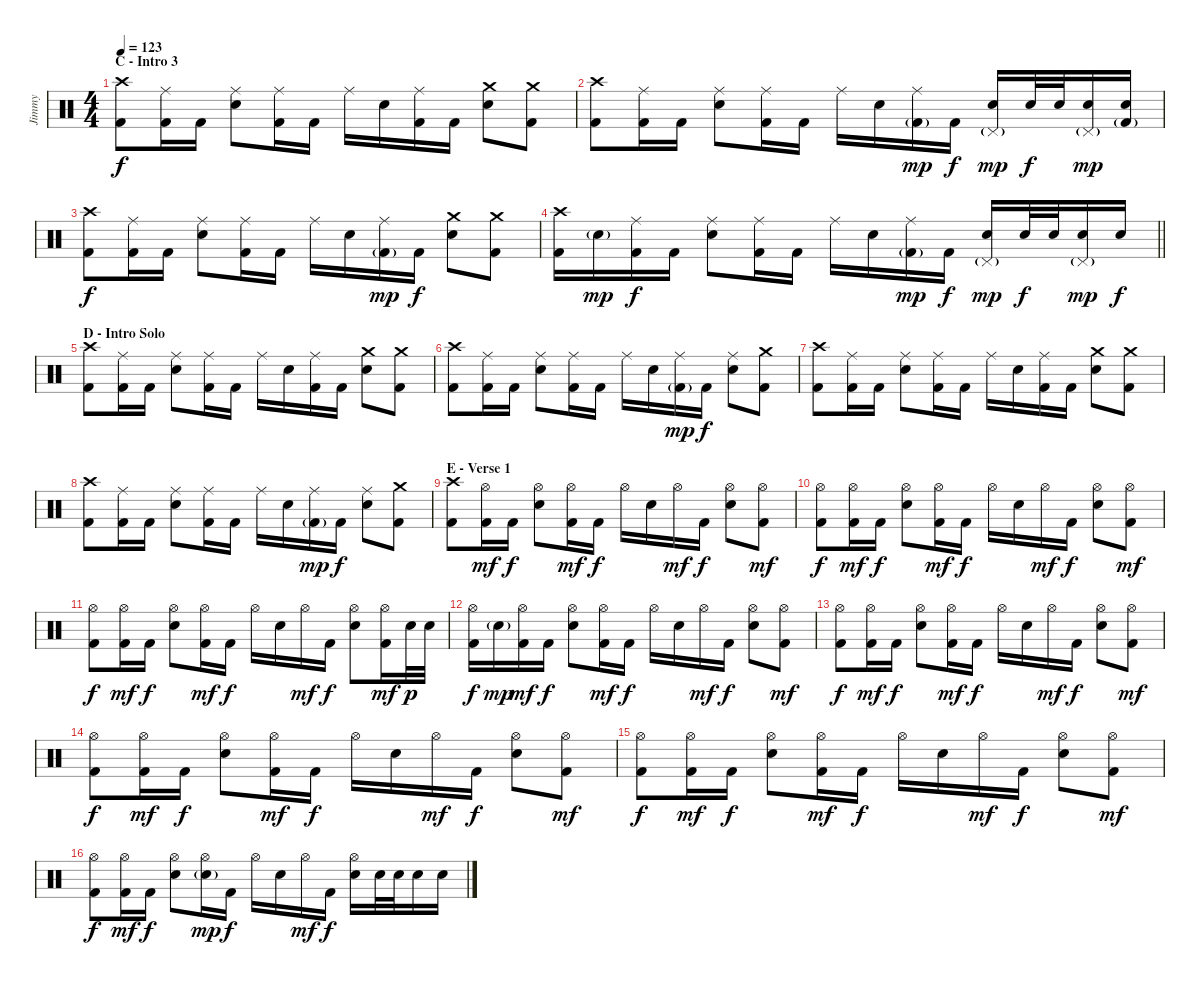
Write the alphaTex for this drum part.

\track ("Jimmy" "Jimmy") {instrument percussion}
\staff {score}
\articulation defaults
\ts (4 4)
\section ("" "C - Intro 3")
\tempo 123
\clef neutral
\ks c
("Crash high (hit)" "Kick (hit) 2").8{dy f} ("Ride (middle)" "Kick (hit) 2").16 "Kick (hit) 2".16 ("Ride (middle)" "Electric Snare (hit)").8 ("Ride (middle)" "Kick (hit) 2").16 "Kick (hit) 2".16 "Ride (middle)".16 "Electric Snare (hit)".16 ("Ride (middle)" "Kick (hit) 2").16 "Kick (hit) 2".16 ("Crash medium (hit)" "Electric Snare (hit)").8 ("Crash medium (hit)" "Kick (hit) 2").8 |
("Crash high (hit)" "Kick (hit) 2").8 ("Ride (middle)" "Kick (hit) 2").16 "Kick (hit) 2".16 ("Ride (middle)" "Electric Snare (hit)").8 ("Ride (middle)" "Kick (hit) 2").16 "Kick (hit) 2".16 "Ride (middle)".16 "Electric Snare (hit)".16 ("Ride (middle)" "Kick (hit) 2"{g}).16{dy mp} "Kick (hit) 2".16{dy f} ("Pedal Hi-Hat (hit)"{g} "Electric Snare (hit)").16{dy mp} "Electric Snare (hit)".32{dy f} "Electric Snare (hit)".32 ("Pedal Hi-Hat (hit)"{g} "Electric Snare (hit)").16{dy mp} ("Electric Snare (hit)" "Kick (hit) 2"{g}).16 |
("Crash high (hit)" "Kick (hit) 2").8{dy f} ("Ride (middle)" "Kick (hit) 2").16 "Kick (hit) 2".16 ("Ride (middle)" "Electric Snare (hit)").8 ("Ride (middle)" "Kick (hit) 2").16 "Kick (hit) 2".16 "Ride (middle)".16 "Electric Snare (hit)".16 ("Ride (middle)" "Kick (hit) 2"{g}).16{dy mp} "Kick (hit) 2".16{dy f} ("Crash medium (hit)" "Electric Snare (hit)").8 ("Crash medium (hit)" "Kick (hit) 2").8 |
\barLineRight lightlight
("Crash high (hit)" "Kick (hit) 2").16 "Electric Snare (hit)"{g}.16{dy mp} ("Ride (middle)" "Kick (hit) 2").16{dy f} "Kick (hit) 2".16 ("Ride (middle)" "Electric Snare (hit)").8 ("Ride (middle)" "Kick (hit) 2").16 "Kick (hit) 2".16 "Ride (middle)".16 "Electric Snare (hit)".16 ("Ride (middle)" "Kick (hit) 2"{g}).16{dy mp} "Kick (hit) 2".16{dy f} ("Pedal Hi-Hat (hit)"{g} "Electric Snare (hit)").16{dy mp} "Electric Snare (hit)".32{dy f} "Electric Snare (hit)".32 ("Pedal Hi-Hat (hit)"{g} "Electric Snare (hit)").16{dy mp} "Electric Snare (hit)".16{dy f} |
\section ("" "D - Intro Solo")
("Crash high (hit)" "Kick (hit) 2").8 ("Ride (middle)" "Kick (hit) 2").16 "Kick (hit) 2".16 ("Ride (middle)" "Electric Snare (hit)").8 ("Ride (middle)" "Kick (hit) 2").16 "Kick (hit) 2".16 "Ride (middle)".16 "Electric Snare (hit)".16 ("Ride (middle)" "Kick (hit) 2").16 "Kick (hit) 2".16 ("Crash medium (hit)" "Electric Snare (hit)").8 ("Crash medium (hit)" "Kick (hit) 2").8 |
("Crash high (hit)" "Kick (hit) 2").8 ("Ride (middle)" "Kick (hit) 2").16 "Kick (hit) 2".16 ("Ride (middle)" "Electric Snare (hit)").8 ("Ride (middle)" "Kick (hit) 2").16 "Kick (hit) 2".16 "Ride (middle)".16 "Electric Snare (hit)".16 ("Ride (middle)" "Kick (hit) 2"{g}).16{dy mp} "Kick (hit) 2".16{dy f} ("Ride (middle)" "Electric Snare (hit)").8 ("Crash medium (hit)" "Kick (hit) 2").8 |
("Crash high (hit)" "Kick (hit) 2").8 ("Ride (middle)" "Kick (hit) 2").16 "Kick (hit) 2".16 ("Ride (middle)" "Electric Snare (hit)").8 ("Ride (middle)" "Kick (hit) 2").16 "Kick (hit) 2".16 "Ride (middle)".16 "Electric Snare (hit)".16 ("Ride (middle)" "Kick (hit) 2").16 "Kick (hit) 2".16 ("Crash medium (hit)" "Electric Snare (hit)").8 ("Crash medium (hit)" "Kick (hit) 2").8 |
("Crash high (hit)" "Kick (hit) 2").8 ("Ride (middle)" "Kick (hit) 2").16 "Kick (hit) 2".16 ("Ride (middle)" "Electric Snare (hit)").8 ("Ride (middle)" "Kick (hit) 2").16 "Kick (hit) 2".16 "Ride (middle)".16 "Electric Snare (hit)".16 ("Ride (middle)" "Kick (hit) 2"{g}).16{dy mp} "Kick (hit) 2".16{dy f} ("Ride (middle)" "Electric Snare (hit)").8 ("Crash medium (hit)" "Kick (hit) 2").8 |
\section ("" "E - Verse 1")
("Crash high (hit)" "Kick (hit) 2").8 ("Hi-Hat (open)" "Kick (hit) 2").16{dy mf} "Kick (hit) 2".16{dy f} ("Hi-Hat (open)" "Electric Snare (hit)").8 ("Hi-Hat (open)" "Kick (hit) 2").16{dy mf} "Kick (hit) 2".16{dy f} "Hi-Hat (open)".16 "Electric Snare (hit)".16 "Hi-Hat (open)".16{dy mf} "Kick (hit) 2".16{dy f} ("Hi-Hat (open)" "Electric Snare (hit)").8 ("Hi-Hat (open)" "Kick (hit) 2").8{dy mf} |
("Hi-Hat (open)" "Kick (hit) 2").8{dy f} ("Hi-Hat (open)" "Kick (hit) 2").16{dy mf} "Kick (hit) 2".16{dy f} ("Hi-Hat (open)" "Electric Snare (hit)").8 ("Hi-Hat (open)" "Kick (hit) 2").16{dy mf} "Kick (hit) 2".16{dy f} "Hi-Hat (open)".16 "Electric Snare (hit)".16 "Hi-Hat (open)".16{dy mf} "Kick (hit) 2".16{dy f} ("Hi-Hat (open)" "Electric Snare (hit)").8 ("Hi-Hat (open)" "Kick (hit) 2").8{dy mf} |
("Hi-Hat (open)" "Kick (hit) 2").8{dy f} ("Hi-Hat (open)" "Kick (hit) 2").16{dy mf} "Kick (hit) 2".16{dy f} ("Hi-Hat (open)" "Electric Snare (hit)").8 ("Hi-Hat (open)" "Kick (hit) 2").16{dy mf} "Kick (hit) 2".16{dy f} "Hi-Hat (open)".16 "Electric Snare (hit)".16 "Hi-Hat (open)".16{dy mf} "Kick (hit) 2".16{dy f} ("Hi-Hat (open)" "Electric Snare (hit)").8 ("Hi-Hat (open)" "Kick (hit) 2").16{dy mf} "Electric Snare (hit)".32{dy p} "Electric Snare (hit)".32 |
("Hi-Hat (open)" "Kick (hit) 2").16{dy f} "Electric Snare (hit)"{g}.16{dy mp} ("Hi-Hat (open)" "Kick (hit) 2").16{dy mf} "Kick (hit) 2".16{dy f} ("Hi-Hat (open)" "Electric Snare (hit)").8 ("Hi-Hat (open)" "Kick (hit) 2").16{dy mf} "Kick (hit) 2".16{dy f} "Hi-Hat (open)".16 "Electric Snare (hit)".16 "Hi-Hat (open)".16{dy mf} "Kick (hit) 2".16{dy f} ("Hi-Hat (open)" "Electric Snare (hit)").8 ("Hi-Hat (open)" "Kick (hit) 2").8{dy mf} |
("Hi-Hat (open)" "Kick (hit) 2").8{dy f} ("Hi-Hat (open)" "Kick (hit) 2").16{dy mf} "Kick (hit) 2".16{dy f} ("Hi-Hat (open)" "Electric Snare (hit)").8 ("Hi-Hat (open)" "Kick (hit) 2").16{dy mf} "Kick (hit) 2".16{dy f} "Hi-Hat (open)".16 "Electric Snare (hit)".16 "Hi-Hat (open)".16{dy mf} "Kick (hit) 2".16{dy f} ("Hi-Hat (open)" "Electric Snare (hit)").8 ("Hi-Hat (open)" "Kick (hit) 2").8{dy mf} |
("Hi-Hat (open)" "Kick (hit) 2").8{dy f} ("Hi-Hat (open)" "Kick (hit) 2").16{dy mf} "Kick (hit) 2".16{dy f} ("Hi-Hat (open)" "Electric Snare (hit)").8 ("Hi-Hat (open)" "Kick (hit) 2").16{dy mf} "Kick (hit) 2".16{dy f} "Hi-Hat (open)".16 "Electric Snare (hit)".16 "Hi-Hat (open)".16{dy mf} "Kick (hit) 2".16{dy f} ("Hi-Hat (open)" "Electric Snare (hit)").8 ("Hi-Hat (open)" "Kick (hit) 2").8{dy mf} |
("Hi-Hat (open)" "Kick (hit) 2").8{dy f} ("Hi-Hat (open)" "Kick (hit) 2").16{dy mf} "Kick (hit) 2".16{dy f} ("Hi-Hat (open)" "Electric Snare (hit)").8 ("Hi-Hat (open)" "Kick (hit) 2").16{dy mf} "Kick (hit) 2".16{dy f} "Hi-Hat (open)".16 "Electric Snare (hit)".16 "Hi-Hat (open)".16{dy mf} "Kick (hit) 2".16{dy f} ("Hi-Hat (open)" "Electric Snare (hit)").8 ("Hi-Hat (open)" "Kick (hit) 2").8{dy mf} |
("Hi-Hat (open)" "Kick (hit) 2").8{dy f} ("Hi-Hat (open)" "Kick (hit) 2").16{dy mf} "Kick (hit) 2".16{dy f} ("Hi-Hat (open)" "Electric Snare (hit)").8 ("Hi-Hat (open)" "Electric Snare (hit)"{g}).16{dy mp} "Kick (hit) 2".16{dy f} "Hi-Hat (open)".16 "Electric Snare (hit)".16 "Hi-Hat (open)".16{dy mf} "Kick (hit) 2".16{dy f} ("Hi-Hat (open)" "Electric Snare (hit)").16 "Electric Snare (hit)".32 "Electric Snare (hit)".32 "Electric Snare (hit)".16 "Electric Snare (hit)".16
